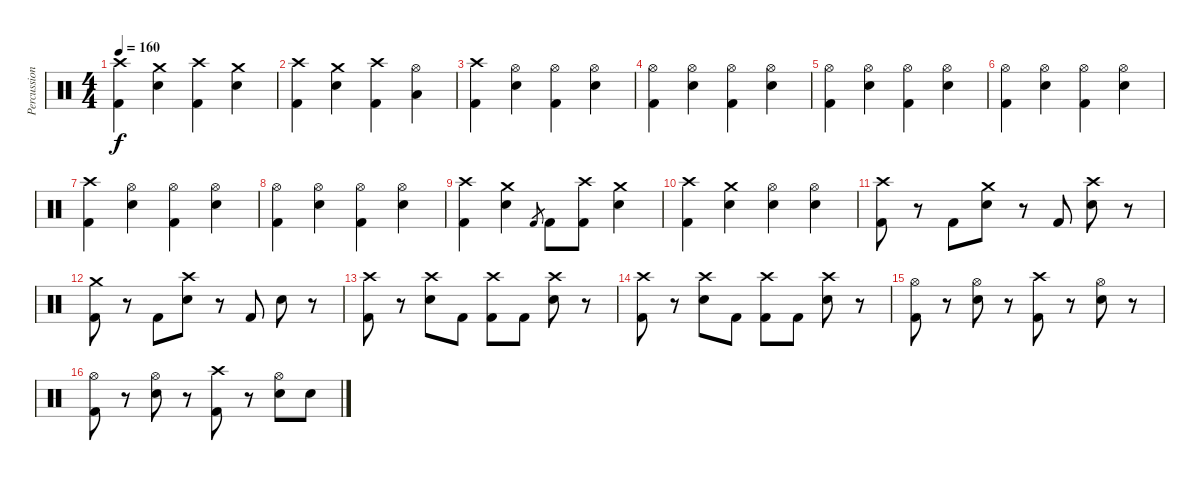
\track ("Percussion" "Percussion") {instrument percussion}
\staff {score}
\articulation defaults
\ts (4 4)
\tempo 160
\clef neutral
\ks c
("Crash high (hit)" "Kick (hit) 2").4{dy f} ("Crash medium (hit)" "Electric Snare (hit)").4 ("Crash high (hit)" "Kick (hit) 2").4 ("Crash medium (hit)" "Electric Snare (hit)").4 |
("Crash high (hit)" "Kick (hit) 2").4 ("Crash medium (hit)" "Electric Snare (hit)").4 ("Crash high (hit)" "Kick (hit) 2").4 ("Hi-Hat (open)" "Low Tom (hit)").4 |
("Crash high (hit)" "Kick (hit) 2").4 ("Hi-Hat (open)" "Electric Snare (hit)").4 ("Hi-Hat (open)" "Kick (hit) 2").4 ("Hi-Hat (open)" "Electric Snare (hit)").4 |
("Hi-Hat (open)" "Kick (hit) 2").4 ("Hi-Hat (open)" "Electric Snare (hit)").4 ("Hi-Hat (open)" "Kick (hit) 2").4 ("Hi-Hat (open)" "Electric Snare (hit)").4 |
("Hi-Hat (open)" "Kick (hit) 2").4 ("Hi-Hat (open)" "Electric Snare (hit)").4 ("Hi-Hat (open)" "Kick (hit) 2").4 ("Hi-Hat (open)" "Electric Snare (hit)").4 |
("Hi-Hat (open)" "Kick (hit) 2").4 ("Hi-Hat (open)" "Electric Snare (hit)").4 ("Hi-Hat (open)" "Kick (hit) 2").4 ("Hi-Hat (open)" "Electric Snare (hit)").4 |
("Crash high (hit)" "Kick (hit) 2").4 ("Hi-Hat (open)" "Electric Snare (hit)").4 ("Hi-Hat (open)" "Kick (hit) 2").4 ("Hi-Hat (open)" "Electric Snare (hit)").4 |
("Hi-Hat (open)" "Kick (hit) 2").4 ("Hi-Hat (open)" "Electric Snare (hit)").4 ("Hi-Hat (open)" "Kick (hit) 2").4 ("Hi-Hat (open)" "Electric Snare (hit)").4 |
("Crash high (hit)" "Kick (hit) 2").4 ("Crash medium (hit)" "Electric Snare (hit)").4 "Kick (hit) 2".8{gr} "Kick (hit) 2".8 ("Crash high (hit)" "Kick (hit) 2").8 ("Crash medium (hit)" "Electric Snare (hit)").4 |
("Crash high (hit)" "Kick (hit) 2").4 ("Crash medium (hit)" "Electric Snare (hit)").4 ("Hi-Hat (open)" "Electric Snare (hit)").4 ("Hi-Hat (open)" "Electric Snare (hit)").4 |
("Crash high (hit)" "Kick (hit) 2").8 r.8 "Kick (hit) 2".8 ("Crash medium (hit)" "Electric Snare (hit)").8 r.8 "Kick (hit) 2".8 ("Crash high (hit)" "Electric Snare (hit)").8 r.8 |
("Crash medium (hit)" "Kick (hit) 2").8 r.8 "Kick (hit) 2".8 ("Crash high (hit)" "Electric Snare (hit)").8 r.8 "Kick (hit) 2".8 "Electric Snare (hit)".8 r.8 |
("Crash high (hit)" "Kick (hit) 2").8 r.8 ("Crash high (hit)" "Electric Snare (hit)").8 "Kick (hit) 2".8 ("Crash high (hit)" "Kick (hit) 2").8 "Kick (hit) 2".8 ("Crash high (hit)" "Electric Snare (hit)").8 r.8 |
("Crash high (hit)" "Kick (hit) 2").8 r.8 ("Crash high (hit)" "Electric Snare (hit)").8 "Kick (hit) 2".8 ("Crash high (hit)" "Kick (hit) 2").8 "Kick (hit) 2".8 ("Crash high (hit)" "Electric Snare (hit)").8 r.8 |
("Hi-Hat (open)" "Kick (hit) 2").8 r.8 ("Hi-Hat (open)" "Electric Snare (hit)").8 r.8 ("Crash high (hit)" "Kick (hit) 2").8 r.8 ("Hi-Hat (open)" "Electric Snare (hit)").8 r.8 |
("Hi-Hat (open)" "Kick (hit) 2").8 r.8 ("Hi-Hat (open)" "Electric Snare (hit)").8 r.8 ("Crash high (hit)" "Kick (hit) 2").8 r.8 ("Hi-Hat (open)" "Electric Snare (hit)").8 "Electric Snare (hit)".8
